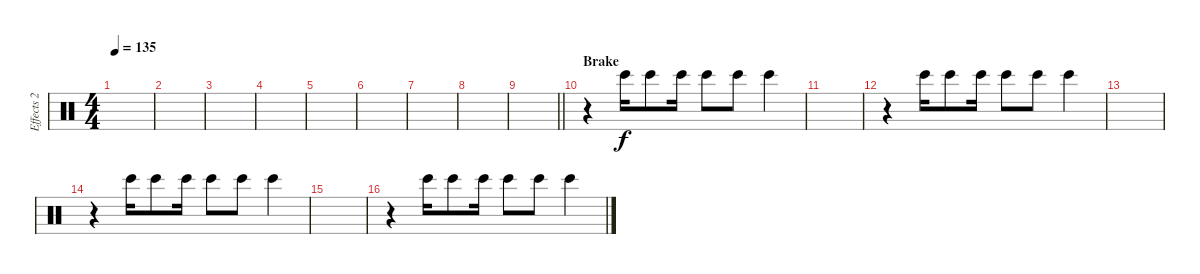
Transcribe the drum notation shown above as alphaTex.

\track ("Effects 2" "Effects 2") {instrument percussion}
\staff {score}
\articulation defaults
\ts (4 4)
\tempo 135
\clef neutral
\ks c
|
|
|
|
|
|
|
|
\barLineRight lightlight
|
\section ("" "Brake")
r.4 "Bongo High (hit)".16{dy f} "Bongo High (hit)".8 "Bongo High (hit)".16 "Bongo High (hit)".8 "Bongo High (hit)".8 "Bongo High (hit)".4 |
|
r.4 "Bongo High (hit)".16 "Bongo High (hit)".8 "Bongo High (hit)".16 "Bongo High (hit)".8 "Bongo High (hit)".8 "Bongo High (hit)".4 |
|
r.4 "Bongo High (hit)".16 "Bongo High (hit)".8 "Bongo High (hit)".16 "Bongo High (hit)".8 "Bongo High (hit)".8 "Bongo High (hit)".4 |
|
r.4 "Bongo High (hit)".16 "Bongo High (hit)".8 "Bongo High (hit)".16 "Bongo High (hit)".8 "Bongo High (hit)".8 "Bongo High (hit)".4
